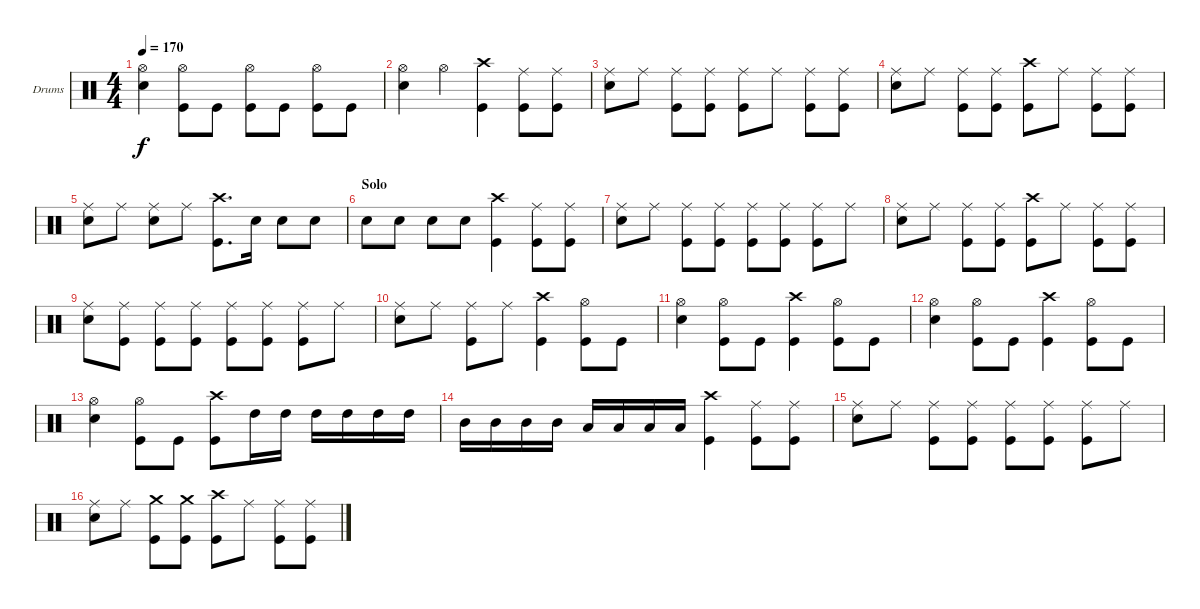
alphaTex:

\defaultSystemsLayout 4
\bracketExtendMode groupsimilarinstruments
\firstSystemTrackNameOrientation horizontal
\otherSystemsTrackNameOrientation horizontal
\track ("Jimmy \"The Hammer\" - Drums" "Drums") {instrument percussion}
\staff {score}
\articulation defaults
\ts (4 4)
\tempo 170
\clef neutral
\ks c
("Snare (hit) 2" "Hi-Hat (open)").4{dy f} ("Kick (hit)" "Hi-Hat (open)").8 "Kick (hit)".8 ("Kick (hit)" "Hi-Hat (open)").8 "Kick (hit)".8 ("Kick (hit)" "Hi-Hat (open)").8 "Kick (hit)".8 |
("Snare (hit) 2" "Hi-Hat (open)").4 "Hi-Hat (open)".4 ("Kick (hit)" "Crash high (hit)").4 ("Kick (hit)" "Ride (middle)").8 ("Kick (hit)" "Ride (middle)").8 |
("Snare (hit) 2" "Ride (middle)").8 "Ride (middle)".8 ("Kick (hit)" "Ride (middle)").8 ("Kick (hit)" "Ride (middle)").8 ("Kick (hit)" "Ride (middle)").8 "Ride (middle)".8 ("Kick (hit)" "Ride (middle)").8 ("Kick (hit)" "Ride (middle)").8 |
("Snare (hit) 2" "Ride (middle)").8 "Ride (middle)".8 ("Kick (hit)" "Ride (middle)").8 ("Kick (hit)" "Ride (middle)").8 ("Kick (hit)" "Crash high (hit)").8 "Ride (middle)".8 ("Kick (hit)" "Ride (middle)").8 ("Kick (hit)" "Ride (middle)").8 |
("Snare (hit) 2" "Ride (middle)").8 "Ride (middle)".8 ("Ride (middle)" "Snare (hit) 2").8 "Ride (middle)".8 ("Kick (hit)" "Crash high (hit)").8{d} "Snare (hit) 2".16 "Snare (hit) 2".8 "Snare (hit) 2".8 |
\section ("" "Solo")
"Snare (hit) 2".8 "Snare (hit) 2".8 "Snare (hit) 2".8 "Snare (hit) 2".8 ("Kick (hit)" "Crash high (hit)").4 ("Kick (hit)" "Ride (middle)").8 ("Kick (hit)" "Ride (middle)").8 |
("Snare (hit) 2" "Ride (middle)").8 "Ride (middle)".8 ("Kick (hit)" "Ride (middle)").8 ("Kick (hit)" "Ride (middle)").8 ("Kick (hit)" "Ride (middle)").8 ("Kick (hit)" "Ride (middle)").8 ("Kick (hit)" "Ride (middle)").8 "Ride (middle)".8 |
("Snare (hit) 2" "Ride (middle)").8 "Ride (middle)".8 ("Kick (hit)" "Ride (middle)").8 ("Kick (hit)" "Ride (middle)").8 ("Kick (hit)" "Crash high (hit)").8 "Ride (middle)".8 ("Kick (hit)" "Ride (middle)").8 ("Kick (hit)" "Ride (middle)").8 |
("Snare (hit) 2" "Ride (middle)").8 ("Kick (hit)" "Ride (middle)").8 ("Kick (hit)" "Ride (middle)").8 ("Kick (hit)" "Ride (middle)").8 ("Kick (hit)" "Ride (middle)").8 ("Kick (hit)" "Ride (middle)").8 ("Kick (hit)" "Ride (middle)").8 "Ride (middle)".8 |
("Snare (hit) 2" "Ride (middle)").8 "Ride (middle)".8 ("Ride (middle)" "Kick (hit)").8 "Ride (middle)".8 ("Kick (hit)" "Crash high (hit)").4 ("Kick (hit)" "Hi-Hat (open)").8 "Kick (hit)".8 |
("Snare (hit) 2" "Hi-Hat (open)").4 ("Kick (hit)" "Hi-Hat (open)").8 "Kick (hit)".8 ("Kick (hit)" "Crash high (hit)").4 ("Kick (hit)" "Hi-Hat (open)").8 "Kick (hit)".8 |
("Snare (hit) 2" "Hi-Hat (open)").4 ("Kick (hit)" "Hi-Hat (open)").8 "Kick (hit)".8 ("Kick (hit)" "Crash high (hit)").4 ("Kick (hit)" "Hi-Hat (open)").8 "Kick (hit)".8 |
("Snare (hit) 2" "Hi-Hat (open)").4 ("Kick (hit)" "Hi-Hat (open)").8 "Kick (hit)".8 ("Kick (hit)" "Crash high (hit)").8 "High Tom (hit)".16 "High Tom (hit)".16 "High Tom (hit)".16 "High Tom (hit)".16 "High Tom (hit)".16 "High Tom (hit)".16 |
"Mid Tom (hit)".16 "Mid Tom (hit)".16 "Mid Tom (hit)".16 "Mid Tom (hit)".16 "Low Tom (hit)".16 "Low Tom (hit)".16 "Low Tom (hit)".16 "Low Tom (hit)".16 ("Kick (hit)" "Crash high (hit)").4 ("Kick (hit)" "Ride (middle)").8 ("Kick (hit)" "Ride (middle)").8 |
("Snare (hit) 2" "Ride (middle)").8 "Ride (middle)".8 ("Kick (hit)" "Ride (middle)").8 ("Kick (hit)" "Ride (middle)").8 ("Kick (hit)" "Ride (middle)").8 ("Kick (hit)" "Ride (middle)").8 ("Kick (hit)" "Ride (middle)").8 "Ride (middle)".8 |
("Snare (hit) 2" "Ride (middle)").8 "Ride (middle)".8 ("Kick (hit)" "Crash medium (hit)").8 ("Kick (hit)" "Crash medium (hit)").8 ("Kick (hit)" "Crash high (hit)").8 "Ride (middle)".8 ("Kick (hit)" "Ride (middle)").8 ("Kick (hit)" "Ride (middle)").8
